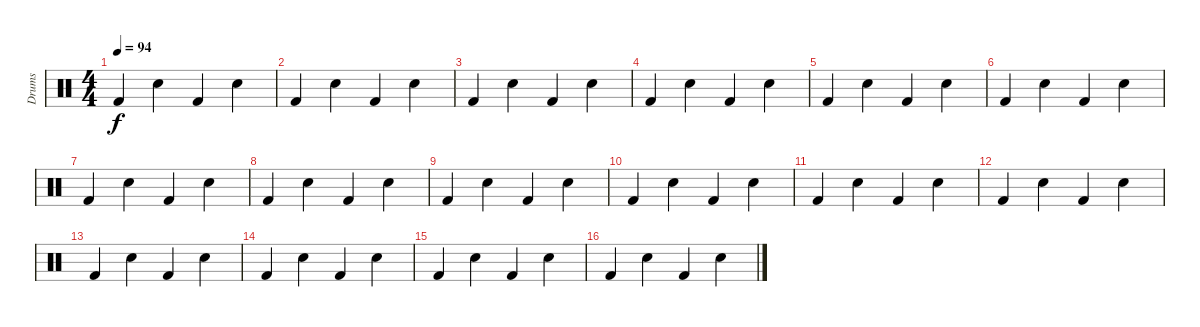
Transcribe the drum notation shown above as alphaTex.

\track ("Drums" "Drums") {instrument percussion}
\staff {score}
\articulation defaults
\ts (4 4)
\tempo 94
\clef neutral
\ks c "Kick (hit) 2".4{dy f} "Snare (hit) 2".4 "Kick (hit) 2".4 "Snare (hit) 2".4
|
"Kick (hit) 2".4 "Snare (hit) 2".4 "Kick (hit) 2".4 "Snare (hit) 2".4 |
"Kick (hit) 2".4 "Snare (hit) 2".4 "Kick (hit) 2".4 "Snare (hit) 2".4 |
"Kick (hit) 2".4 "Snare (hit) 2".4 "Kick (hit) 2".4 "Snare (hit) 2".4 |
"Kick (hit) 2".4 "Snare (hit) 2".4 "Kick (hit) 2".4 "Snare (hit) 2".4 |
"Kick (hit) 2".4 "Snare (hit) 2".4 "Kick (hit) 2".4 "Snare (hit) 2".4 |
"Kick (hit) 2".4 "Snare (hit) 2".4 "Kick (hit) 2".4 "Snare (hit) 2".4 |
"Kick (hit) 2".4 "Snare (hit) 2".4 "Kick (hit) 2".4 "Snare (hit) 2".4 |
"Kick (hit) 2".4 "Snare (hit) 2".4 "Kick (hit) 2".4 "Snare (hit) 2".4 |
"Kick (hit) 2".4 "Snare (hit) 2".4 "Kick (hit) 2".4 "Snare (hit) 2".4 |
"Kick (hit) 2".4 "Snare (hit) 2".4 "Kick (hit) 2".4 "Snare (hit) 2".4 |
"Kick (hit) 2".4 "Snare (hit) 2".4 "Kick (hit) 2".4 "Snare (hit) 2".4 |
"Kick (hit) 2".4 "Snare (hit) 2".4 "Kick (hit) 2".4 "Snare (hit) 2".4 |
"Kick (hit) 2".4 "Snare (hit) 2".4 "Kick (hit) 2".4 "Snare (hit) 2".4 |
"Kick (hit) 2".4 "Snare (hit) 2".4 "Kick (hit) 2".4 "Snare (hit) 2".4 |
"Kick (hit) 2".4 "Snare (hit) 2".4 "Kick (hit) 2".4 "Snare (hit) 2".4
